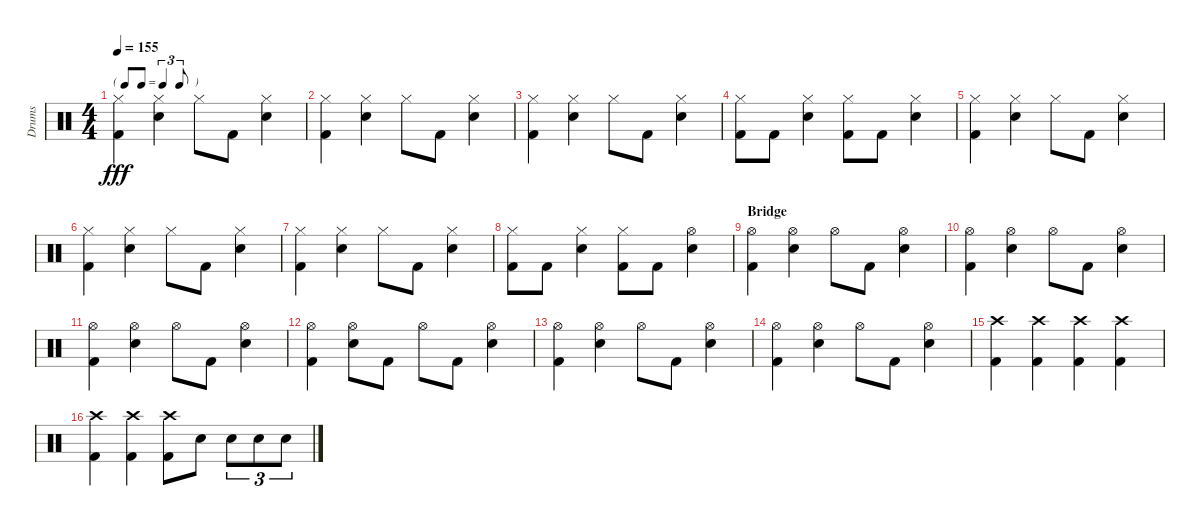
\track ("Drums" "Drums") {instrument percussion}
\staff {score}
\articulation defaults
\ts (4 4)
\tf triplet8th
\tempo 155
\clef neutral
\ks c
("Hi-Hat (closed)" "Kick (hit) 2").4{dy fff} ("Hi-Hat (closed)" "Snare (hit) 2").4 "Hi-Hat (closed)".8 "Kick (hit) 2".8 ("Hi-Hat (closed)" "Snare (hit) 2").4 |
("Hi-Hat (closed)" "Kick (hit) 2").4 ("Hi-Hat (closed)" "Snare (hit) 2").4 "Hi-Hat (closed)".8 "Kick (hit) 2".8 ("Hi-Hat (closed)" "Snare (hit) 2").4 |
("Hi-Hat (closed)" "Kick (hit) 2").4 ("Hi-Hat (closed)" "Snare (hit) 2").4 "Hi-Hat (closed)".8 "Kick (hit) 2".8 ("Hi-Hat (closed)" "Snare (hit) 2").4 |
("Hi-Hat (closed)" "Kick (hit) 2").8 "Kick (hit) 2".8 ("Hi-Hat (closed)" "Snare (hit) 2").4 ("Hi-Hat (closed)" "Kick (hit) 2").8 "Kick (hit) 2".8 ("Hi-Hat (closed)" "Snare (hit) 2").4 |
("Hi-Hat (closed)" "Kick (hit) 2").4 ("Hi-Hat (closed)" "Snare (hit) 2").4 "Hi-Hat (closed)".8 "Kick (hit) 2".8 ("Hi-Hat (closed)" "Snare (hit) 2").4 |
("Hi-Hat (closed)" "Kick (hit) 2").4 ("Hi-Hat (closed)" "Snare (hit) 2").4 "Hi-Hat (closed)".8 "Kick (hit) 2".8 ("Hi-Hat (closed)" "Snare (hit) 2").4 |
("Hi-Hat (closed)" "Kick (hit) 2").4 ("Hi-Hat (closed)" "Snare (hit) 2").4 "Hi-Hat (closed)".8 "Kick (hit) 2".8 ("Hi-Hat (closed)" "Snare (hit) 2").4 |
("Hi-Hat (closed)" "Kick (hit) 2").8 "Kick (hit) 2".8 ("Hi-Hat (closed)" "Snare (hit) 2").4 ("Hi-Hat (closed)" "Kick (hit) 2").8 "Kick (hit) 2".8 ("Hi-Hat (open)" "Snare (hit) 2").4 |
\section ("" "Bridge")
("Hi-Hat (open)" "Kick (hit) 2").4 ("Hi-Hat (open)" "Snare (hit) 2").4 "Hi-Hat (open)".8 "Kick (hit) 2".8 ("Hi-Hat (open)" "Snare (hit) 2").4 |
("Hi-Hat (open)" "Kick (hit) 2").4 ("Hi-Hat (open)" "Snare (hit) 2").4 "Hi-Hat (open)".8 "Kick (hit) 2".8 ("Hi-Hat (open)" "Snare (hit) 2").4 |
("Hi-Hat (open)" "Kick (hit) 2").4 ("Hi-Hat (open)" "Snare (hit) 2").4 "Hi-Hat (open)".8 "Kick (hit) 2".8 ("Hi-Hat (open)" "Snare (hit) 2").4 |
("Hi-Hat (open)" "Kick (hit) 2").4 ("Hi-Hat (open)" "Snare (hit) 2").8 "Kick (hit) 2".8 "Hi-Hat (open)".8 "Kick (hit) 2".8 ("Hi-Hat (open)" "Snare (hit) 2").4 |
("Hi-Hat (open)" "Kick (hit) 2").4 ("Hi-Hat (open)" "Snare (hit) 2").4 "Hi-Hat (open)".8 "Kick (hit) 2".8 ("Hi-Hat (open)" "Snare (hit) 2").4 |
("Hi-Hat (open)" "Kick (hit) 2").4 ("Hi-Hat (open)" "Snare (hit) 2").4 "Hi-Hat (open)".8 "Kick (hit) 2".8 ("Hi-Hat (open)" "Snare (hit) 2").4 |
("Crash high (hit)" "Kick (hit) 2").4 ("Crash high (hit)" "Kick (hit) 2").4 ("Crash high (hit)" "Kick (hit) 2").4 ("Crash high (hit)" "Kick (hit) 2").4 |
("Crash high (hit)" "Kick (hit) 2").4 ("Crash high (hit)" "Kick (hit) 2").4 ("Crash high (hit)" "Kick (hit) 2").8 "Snare (hit) 2".8 "Snare (hit) 2".8{tu (3 2)} "Snare (hit) 2".8{tu (3 2)} "Snare (hit) 2".8{tu (3 2)}
